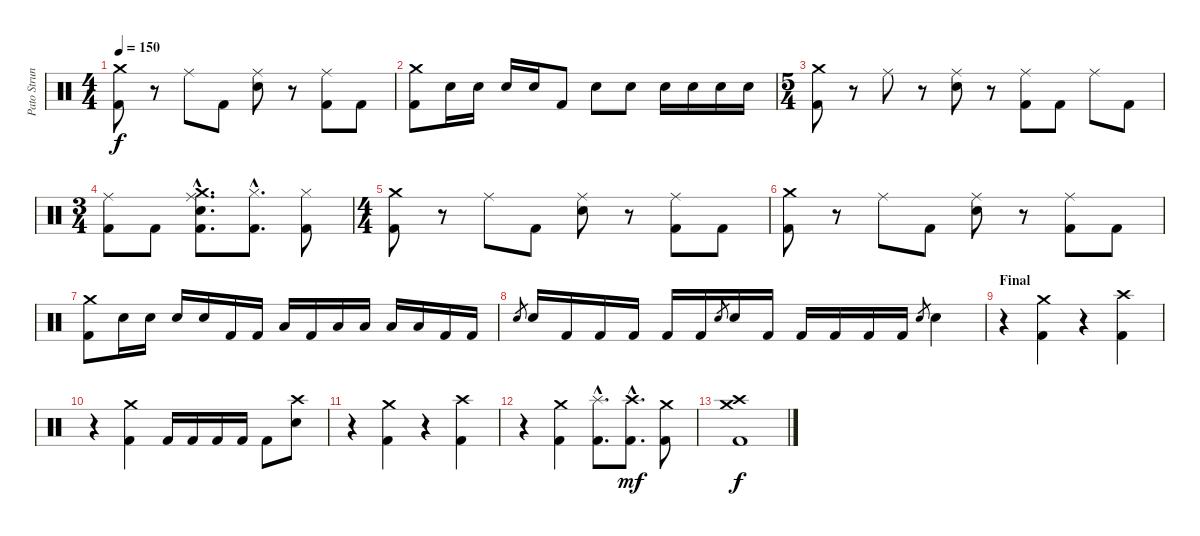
\track ("Pato Strunz" "Pato Strun") {instrument percussion}
\staff {score}
\articulation defaults
\ts (4 4)
\tempo 150
\clef neutral
\ks c
("Crash medium (hit)" "Kick (hit) 2").8{dy f} r.8 "Ride (middle)".8 "Kick (hit) 2".8 ("Ride (middle)" "Electric Snare (hit)").8 r.8 ("Ride (middle)" "Kick (hit) 2").8 "Kick (hit) 2".8 |
("Crash medium (hit)" "Kick (hit) 2").8 "Electric Snare (hit)".16 "Electric Snare (hit)".16 "Electric Snare (hit)".16 "Electric Snare (hit)".16 "Kick (hit) 2".8 "Electric Snare (hit)".8 "Electric Snare (hit)".8 "Electric Snare (hit)".16 "Electric Snare (hit)".16 "Electric Snare (hit)".16 "Electric Snare (hit)".16 |
\ts (5 4)
("Crash medium (hit)" "Kick (hit) 2").8 r.8 "Ride (middle)".8 r.8 ("Ride (middle)" "Electric Snare (hit)").8 r.8 ("Ride (middle)" "Kick (hit) 2").8 "Kick (hit) 2".8 "Ride (middle)".8 "Kick (hit) 2".8 |
\ts (3 4)
("Ride (middle)" "Kick (hit) 2").8 "Kick (hit) 2".8 ("Crash medium (hit)"{hac} "Ride (middle)"{hac} "Electric Snare (hit)"{hac} "Kick (hit) 2"{hac}).8{d} ("Hi-Hat (closed)"{hac} "Kick (hit) 2"{hac}).8{d} ("Hi-Hat (closed)" "Kick (hit) 2").8 |
\ts (4 4)
("Crash medium (hit)" "Kick (hit) 2").8 r.8 "Ride (middle)".8 "Kick (hit) 2".8 ("Ride (middle)" "Electric Snare (hit)").8 r.8 ("Ride (middle)" "Kick (hit) 2").8 "Kick (hit) 2".8 |
("Crash medium (hit)" "Kick (hit) 2").8 r.8 "Ride (middle)".8 "Kick (hit) 2".8 ("Ride (middle)" "Electric Snare (hit)").8 r.8 ("Ride (middle)" "Kick (hit) 2").8 "Kick (hit) 2".8 |
("Crash medium (hit)" "Kick (hit) 2").8 "Electric Snare (hit)".16 "Electric Snare (hit)".16 "Electric Snare (hit)".16 "Electric Snare (hit)".16 "Kick (hit) 2".16 "Kick (hit) 2".16 "Low Tom (hit)".16 "Kick (hit) 2".16 "Low Tom (hit)".16 "Low Tom (hit)".16 "Low Tom (hit)".16 "Low Tom (hit)".16 "Kick (hit) 2".16 "Kick (hit) 2".16 |
"Electric Snare (hit)".8{gr} "Electric Snare (hit)".16 "Kick (hit) 2".16 "Kick (hit) 2".16 "Kick (hit) 2".16 "Kick (hit) 2".16 "Kick (hit) 2".16 "Electric Snare (hit)".8{gr} "Electric Snare (hit)".16 "Kick (hit) 2".16 "Kick (hit) 2".16 "Kick (hit) 2".16 "Kick (hit) 2".16 "Kick (hit) 2".16 "Electric Snare (hit)".8{gr} "Electric Snare (hit)".4 |
\section ("" "Final")
r.4 ("Crash medium (hit)" "Kick (hit) 2").4 r.4 ("Crash high (hit)" "Kick (hit) 2").4 |
r.4 ("Crash medium (hit)" "Kick (hit) 2").4 "Kick (hit) 2".16 "Kick (hit) 2".16 "Kick (hit) 2".16 "Kick (hit) 2".16 "Kick (hit) 2".8 ("Crash high (hit)" "Electric Snare (hit)").8 |
r.4 ("Crash medium (hit)" "Kick (hit) 2").4 r.4 ("Crash high (hit)" "Kick (hit) 2").4 |
r.4 ("Crash medium (hit)" "Kick (hit) 2").4 ("Splash (hit)"{hac} "Kick (hit) 2"{hac}).8{d} ("Crash high (hit)"{hac} "Kick (hit) 2"{hac}).8{d dy mf} ("Crash medium (hit)" "Kick (hit) 2").8 |
("Crash medium (hit)" "Crash high (hit)" "Kick (hit) 2").1{dy f}
